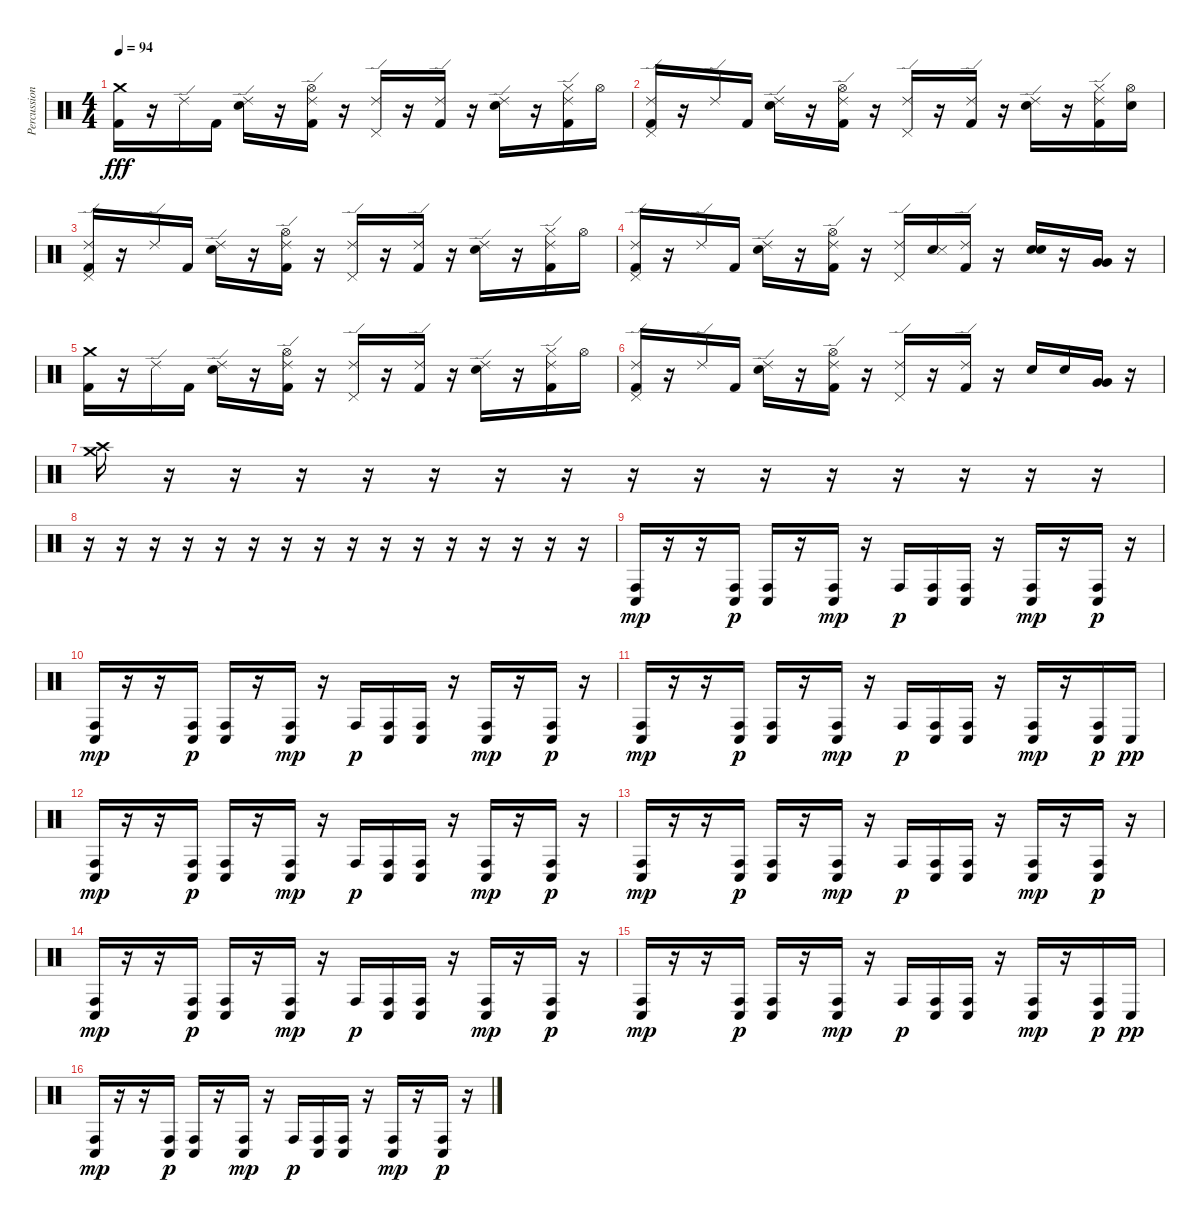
\track ("Percussions" "Percussion") {instrument percussion}
\staff {score}
\articulation defaults
\ts (4 4)
\tempo 94
\clef neutral
\ks c
("Crash medium (hit)" "Kick (hit) 2").16{dy fff} r.16 "Ride (edge) 2".16 "Kick (hit) 2".16 ("Ride (edge) 2" "Electric Snare (hit)").16 r.16 ("Ride (edge) 2" "Hi-Hat (open)" "Kick (hit) 2").16 r.16 ("Ride (edge) 2" "Pedal Hi-Hat (hit)").16 r.16 ("Ride (edge) 2" "Kick (hit) 2").16 r.16 ("Ride (edge) 2" "Electric Snare (hit)").16 r.16 ("Ride (edge) 2" "Hi-Hat (closed)" "Kick (hit) 2").16 "Hi-Hat (open)".16 |
("Ride (edge) 2" "Pedal Hi-Hat (hit)" "Kick (hit) 2").16 r.16 "Ride (edge) 2".16 "Kick (hit) 2".16 ("Ride (edge) 2" "Electric Snare (hit)").16 r.16 ("Ride (edge) 2" "Hi-Hat (open)" "Kick (hit) 2").16 r.16 ("Ride (edge) 2" "Pedal Hi-Hat (hit)").16 r.16 ("Ride (edge) 2" "Kick (hit) 2").16 r.16 ("Ride (edge) 2" "Electric Snare (hit)").16 r.16 ("Ride (edge) 2" "Hi-Hat (closed)" "Kick (hit) 2").16 ("Hi-Hat (open)" "Electric Snare (hit)").16 |
("Ride (edge) 2" "Pedal Hi-Hat (hit)" "Kick (hit) 2").16 r.16 "Ride (edge) 2".16 "Kick (hit) 2".16 ("Ride (edge) 2" "Electric Snare (hit)").16 r.16 ("Ride (edge) 2" "Hi-Hat (open)" "Kick (hit) 2").16 r.16 ("Ride (edge) 2" "Pedal Hi-Hat (hit)").16 r.16 ("Ride (edge) 2" "Kick (hit) 2").16 r.16 ("Ride (edge) 2" "Electric Snare (hit)").16 r.16 ("Ride (edge) 2" "Hi-Hat (closed)" "Kick (hit) 2").16 "Hi-Hat (open)".16 |
("Ride (edge) 2" "Pedal Hi-Hat (hit)" "Kick (hit) 2").16 r.16 "Ride (edge) 2".16 "Kick (hit) 2".16 ("Ride (edge) 2" "Electric Snare (hit)").16 r.16 ("Ride (edge) 2" "Hi-Hat (open)" "Kick (hit) 2").16 r.16 ("Ride (edge) 2" "Pedal Hi-Hat (hit)").16 ("Electric Snare (hit)" "Snare (side stick) 3").16 ("Ride (edge) 2" "Kick (hit) 2").16 r.16 ("Electric Snare (hit)" "Electric Snare (hit)").16 r.16 ("Very Low Tom (hit)" "Very Low Tom (hit)").16 r.16 |
("Crash medium (hit)" "Kick (hit) 2").16 r.16 "Ride (edge) 2".16 "Kick (hit) 2".16 ("Ride (edge) 2" "Electric Snare (hit)").16 r.16 ("Ride (edge) 2" "Hi-Hat (open)" "Kick (hit) 2").16 r.16 ("Ride (edge) 2" "Pedal Hi-Hat (hit)").16 r.16 ("Ride (edge) 2" "Kick (hit) 2").16 r.16 ("Ride (edge) 2" "Electric Snare (hit)").16 r.16 ("Ride (edge) 2" "Hi-Hat (closed)" "Kick (hit) 2").16 "Hi-Hat (open)".16 |
("Ride (edge) 2" "Pedal Hi-Hat (hit)" "Kick (hit) 2").16 r.16 "Ride (edge) 2".16 "Kick (hit) 2".16 ("Ride (edge) 2" "Electric Snare (hit)").16 r.16 ("Ride (edge) 2" "Hi-Hat (open)" "Kick (hit) 2").16 r.16 ("Ride (edge) 2" "Pedal Hi-Hat (hit)").16 r.16 ("Ride (edge) 2" "Kick (hit) 2").16 r.16 "Electric Snare (hit)".16 "Electric Snare (hit)".16 ("Very Low Tom (hit)" "Very Low Tom (hit)").16 r.16 |
("Crash high (hit)" "Crash medium (hit)").16 r.16 r.16 r.16 r.16 r.16 r.16 r.16 r.16 r.16 r.16 r.16 r.16 r.16 r.16 r.16 |
r.16 r.16 r.16 r.16 r.16 r.16 r.16 r.16 r.16 r.16 r.16 r.16 r.16 r.16 r.16 r.16 |
("Conga low (hit)" "Conga high (hit)").16{dy mp} r.16 r.16 ("Conga low (hit)" "Conga high (hit)").16{dy p} ("Conga low (hit)" "Conga high (hit)").16 r.16 ("Conga low (hit)" "Conga high (hit)").16{dy mp} r.16 "Conga high (hit)".16{dy p} ("Conga low (hit)" "Conga high (hit)").16 ("Conga low (hit)" "Conga high (hit)").16 r.16 ("Conga low (hit)" "Conga high (hit)").16{dy mp} r.16 ("Conga low (hit)" "Conga high (hit)").16{dy p} r.16 |
("Conga low (hit)" "Conga high (hit)").16{dy mp} r.16 r.16 ("Conga low (hit)" "Conga high (hit)").16{dy p} ("Conga low (hit)" "Conga high (hit)").16 r.16 ("Conga low (hit)" "Conga high (hit)").16{dy mp} r.16 "Conga high (hit)".16{dy p} ("Conga low (hit)" "Conga high (hit)").16 ("Conga low (hit)" "Conga high (hit)").16 r.16 ("Conga low (hit)" "Conga high (hit)").16{dy mp} r.16 ("Conga low (hit)" "Conga high (hit)").16{dy p} r.16 |
("Conga low (hit)" "Conga high (hit)").16{dy mp} r.16 r.16 ("Conga low (hit)" "Conga high (hit)").16{dy p} ("Conga low (hit)" "Conga high (hit)").16 r.16 ("Conga low (hit)" "Conga high (hit)").16{dy mp} r.16 "Conga high (hit)".16{dy p} ("Conga low (hit)" "Conga high (hit)").16 ("Conga low (hit)" "Conga high (hit)").16 r.16 ("Conga low (hit)" "Conga high (hit)").16{dy mp} r.16 ("Conga low (hit)" "Conga high (hit)").16{dy p} "Conga low (hit)".16{dy pp} |
("Conga low (hit)" "Conga high (hit)").16{dy mp} r.16 r.16 ("Conga low (hit)" "Conga high (hit)").16{dy p} ("Conga low (hit)" "Conga high (hit)").16 r.16 ("Conga low (hit)" "Conga high (hit)").16{dy mp} r.16 "Conga high (hit)".16{dy p} ("Conga low (hit)" "Conga high (hit)").16 ("Conga low (hit)" "Conga high (hit)").16 r.16 ("Conga low (hit)" "Conga high (hit)").16{dy mp} r.16 ("Conga low (hit)" "Conga high (hit)").16{dy p} r.16 |
("Conga low (hit)" "Conga high (hit)").16{dy mp} r.16 r.16 ("Conga low (hit)" "Conga high (hit)").16{dy p} ("Conga low (hit)" "Conga high (hit)").16 r.16 ("Conga low (hit)" "Conga high (hit)").16{dy mp} r.16 "Conga high (hit)".16{dy p} ("Conga low (hit)" "Conga high (hit)").16 ("Conga low (hit)" "Conga high (hit)").16 r.16 ("Conga low (hit)" "Conga high (hit)").16{dy mp} r.16 ("Conga low (hit)" "Conga high (hit)").16{dy p} r.16 |
("Conga low (hit)" "Conga high (hit)").16{dy mp} r.16 r.16 ("Conga low (hit)" "Conga high (hit)").16{dy p} ("Conga low (hit)" "Conga high (hit)").16 r.16 ("Conga low (hit)" "Conga high (hit)").16{dy mp} r.16 "Conga high (hit)".16{dy p} ("Conga low (hit)" "Conga high (hit)").16 ("Conga low (hit)" "Conga high (hit)").16 r.16 ("Conga low (hit)" "Conga high (hit)").16{dy mp} r.16 ("Conga low (hit)" "Conga high (hit)").16{dy p} r.16 |
("Conga low (hit)" "Conga high (hit)").16{dy mp} r.16 r.16 ("Conga low (hit)" "Conga high (hit)").16{dy p} ("Conga low (hit)" "Conga high (hit)").16 r.16 ("Conga low (hit)" "Conga high (hit)").16{dy mp} r.16 "Conga high (hit)".16{dy p} ("Conga low (hit)" "Conga high (hit)").16 ("Conga low (hit)" "Conga high (hit)").16 r.16 ("Conga low (hit)" "Conga high (hit)").16{dy mp} r.16 ("Conga low (hit)" "Conga high (hit)").16{dy p} "Conga low (hit)".16{dy pp} |
("Conga low (hit)" "Conga high (hit)").16{dy mp} r.16 r.16 ("Conga low (hit)" "Conga high (hit)").16{dy p} ("Conga low (hit)" "Conga high (hit)").16 r.16 ("Conga low (hit)" "Conga high (hit)").16{dy mp} r.16 "Conga high (hit)".16{dy p} ("Conga low (hit)" "Conga high (hit)").16 ("Conga low (hit)" "Conga high (hit)").16 r.16 ("Conga low (hit)" "Conga high (hit)").16{dy mp} r.16 ("Conga low (hit)" "Conga high (hit)").16{dy p} r.16
